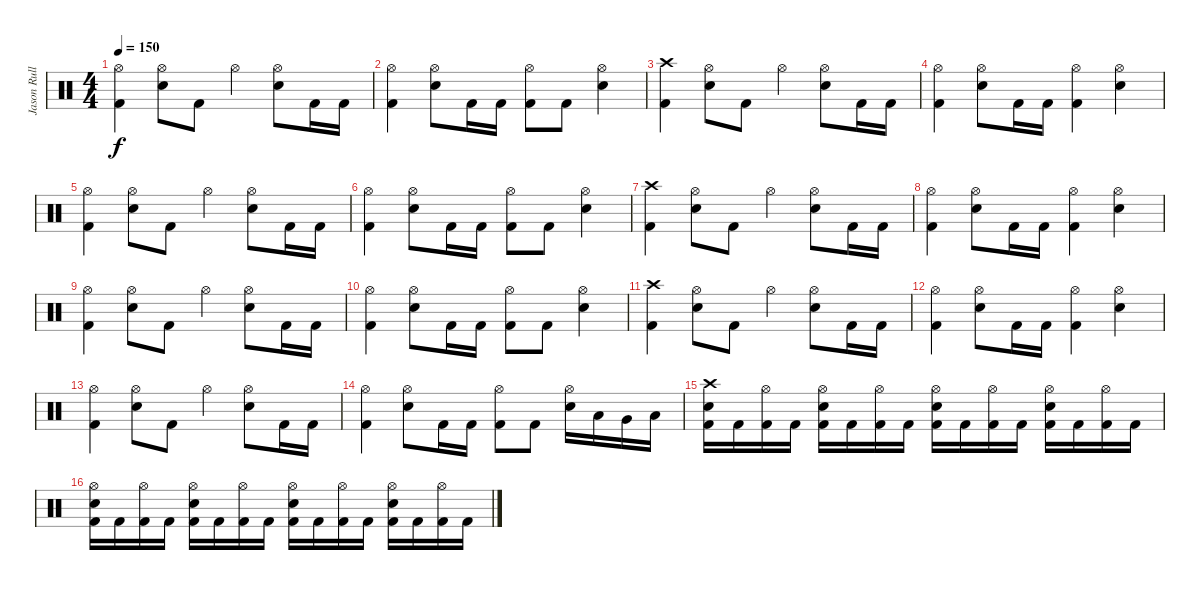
\track ("Jason Rullo" "Jason Rull") {instrument percussion}
\staff {score}
\articulation defaults
\ts (4 4)
\tempo 150
\clef neutral
\ks c
("Hi-Hat (open)" "Kick (hit) 2").4{dy f} ("Hi-Hat (open)" "Electric Snare (hit)").8 "Kick (hit) 2".8 "Hi-Hat (open)".4 ("Hi-Hat (open)" "Electric Snare (hit)").8 "Kick (hit) 2".16 "Kick (hit) 2".16 |
("Hi-Hat (open)" "Kick (hit) 2").4 ("Hi-Hat (open)" "Electric Snare (hit)").8 "Kick (hit) 2".16 "Kick (hit) 2".16 ("Hi-Hat (open)" "Kick (hit) 2").8 "Kick (hit) 2".8 ("Hi-Hat (open)" "Electric Snare (hit)").4 |
("Crash high (hit)" "Kick (hit) 2").4 ("Hi-Hat (open)" "Electric Snare (hit)").8 "Kick (hit) 2".8 "Hi-Hat (open)".4 ("Hi-Hat (open)" "Electric Snare (hit)").8 "Kick (hit) 2".16 "Kick (hit) 2".16 |
("Hi-Hat (open)" "Kick (hit) 2").4 ("Hi-Hat (open)" "Electric Snare (hit)").8 "Kick (hit) 2".16 "Kick (hit) 2".16 ("Hi-Hat (open)" "Kick (hit) 2").4 ("Hi-Hat (open)" "Electric Snare (hit)").4 |
("Hi-Hat (open)" "Kick (hit) 2").4 ("Hi-Hat (open)" "Electric Snare (hit)").8 "Kick (hit) 2".8 "Hi-Hat (open)".4 ("Hi-Hat (open)" "Electric Snare (hit)").8 "Kick (hit) 2".16 "Kick (hit) 2".16 |
("Hi-Hat (open)" "Kick (hit) 2").4 ("Hi-Hat (open)" "Electric Snare (hit)").8 "Kick (hit) 2".16 "Kick (hit) 2".16 ("Hi-Hat (open)" "Kick (hit) 2").8 "Kick (hit) 2".8 ("Hi-Hat (open)" "Electric Snare (hit)").4 |
("Crash high (hit)" "Kick (hit) 2").4 ("Hi-Hat (open)" "Electric Snare (hit)").8 "Kick (hit) 2".8 "Hi-Hat (open)".4 ("Hi-Hat (open)" "Electric Snare (hit)").8 "Kick (hit) 2".16 "Kick (hit) 2".16 |
("Hi-Hat (open)" "Kick (hit) 2").4 ("Hi-Hat (open)" "Electric Snare (hit)").8 "Kick (hit) 2".16 "Kick (hit) 2".16 ("Hi-Hat (open)" "Kick (hit) 2").4 ("Hi-Hat (open)" "Electric Snare (hit)").4 |
("Hi-Hat (open)" "Kick (hit) 2").4 ("Hi-Hat (open)" "Electric Snare (hit)").8 "Kick (hit) 2".8 "Hi-Hat (open)".4 ("Hi-Hat (open)" "Electric Snare (hit)").8 "Kick (hit) 2".16 "Kick (hit) 2".16 |
("Hi-Hat (open)" "Kick (hit) 2").4 ("Hi-Hat (open)" "Electric Snare (hit)").8 "Kick (hit) 2".16 "Kick (hit) 2".16 ("Hi-Hat (open)" "Kick (hit) 2").8 "Kick (hit) 2".8 ("Hi-Hat (open)" "Electric Snare (hit)").4 |
("Crash high (hit)" "Kick (hit) 2").4 ("Hi-Hat (open)" "Electric Snare (hit)").8 "Kick (hit) 2".8 "Hi-Hat (open)".4 ("Hi-Hat (open)" "Electric Snare (hit)").8 "Kick (hit) 2".16 "Kick (hit) 2".16 |
("Hi-Hat (open)" "Kick (hit) 2").4 ("Hi-Hat (open)" "Electric Snare (hit)").8 "Kick (hit) 2".16 "Kick (hit) 2".16 ("Hi-Hat (open)" "Kick (hit) 2").4 ("Hi-Hat (open)" "Electric Snare (hit)").4 |
("Hi-Hat (open)" "Kick (hit) 2").4 ("Hi-Hat (open)" "Electric Snare (hit)").8 "Kick (hit) 2".8 "Hi-Hat (open)".4 ("Hi-Hat (open)" "Electric Snare (hit)").8 "Kick (hit) 2".16 "Kick (hit) 2".16 |
("Hi-Hat (open)" "Kick (hit) 2").4 ("Hi-Hat (open)" "Electric Snare (hit)").8 "Kick (hit) 2".16 "Kick (hit) 2".16 ("Hi-Hat (open)" "Kick (hit) 2").8 "Kick (hit) 2".8 ("Hi-Hat (open)" "Electric Snare (hit)").16 "Low Tom (hit)".16 "Very Low Tom (hit)".16 "Low Floor Tom (hit)".16 |
("Crash high (hit)" "Electric Snare (hit)" "Kick (hit) 2").16 "Kick (hit) 2".16 ("Hi-Hat (open)" "Kick (hit) 2").16 "Kick (hit) 2".16 ("Hi-Hat (open)" "Electric Snare (hit)" "Kick (hit) 2").16 "Kick (hit) 2".16 ("Hi-Hat (open)" "Kick (hit) 2").16 "Kick (hit) 2".16 ("Hi-Hat (open)" "Electric Snare (hit)" "Kick (hit) 2").16 "Kick (hit) 2".16 ("Hi-Hat (open)" "Kick (hit) 2").16 "Kick (hit) 2".16 ("Hi-Hat (open)" "Electric Snare (hit)" "Kick (hit) 2").16 "Kick (hit) 2".16 ("Hi-Hat (open)" "Kick (hit) 2").16 "Kick (hit) 2".16 |
("Hi-Hat (open)" "Electric Snare (hit)" "Kick (hit) 2").16 "Kick (hit) 2".16 ("Hi-Hat (open)" "Kick (hit) 2").16 "Kick (hit) 2".16 ("Hi-Hat (open)" "Electric Snare (hit)" "Kick (hit) 2").16 "Kick (hit) 2".16 ("Hi-Hat (open)" "Kick (hit) 2").16 "Kick (hit) 2".16 ("Hi-Hat (open)" "Electric Snare (hit)" "Kick (hit) 2").16 "Kick (hit) 2".16 ("Hi-Hat (open)" "Kick (hit) 2").16 "Kick (hit) 2".16 ("Hi-Hat (open)" "Electric Snare (hit)" "Kick (hit) 2").16 "Kick (hit) 2".16 ("Hi-Hat (open)" "Kick (hit) 2").16 "Kick (hit) 2".16
